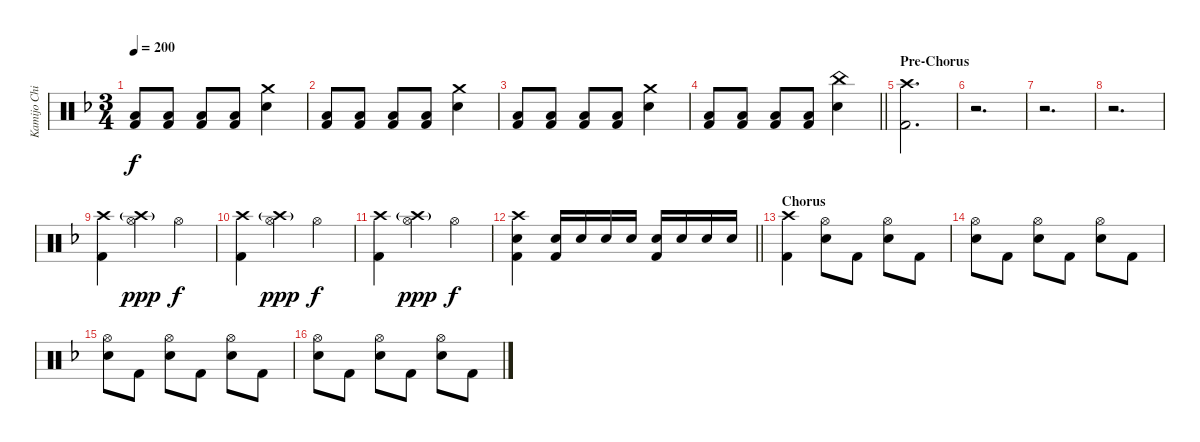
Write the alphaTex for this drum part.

\track ("Kamijo Chihiro" "Kamijo Chi") {instrument percussion}
\staff {score}
\articulation defaults
\ts (3 4)
\tempo 200
\clef neutral
\ks dminor
("Low Floor Tom (hit)" "Kick (hit) 2").8{dy f} ("Low Floor Tom (hit)" "Kick (hit) 2").8 ("Low Floor Tom (hit)" "Kick (hit) 2").8 ("Low Floor Tom (hit)" "Kick (hit) 2").8 ("Crash medium (hit)" "Snare (hit) 2").4 |
("Low Floor Tom (hit)" "Kick (hit) 2").8 ("Low Floor Tom (hit)" "Kick (hit) 2").8 ("Low Floor Tom (hit)" "Kick (hit) 2").8 ("Low Floor Tom (hit)" "Kick (hit) 2").8 ("Crash medium (hit)" "Snare (hit) 2").4 |
("Low Floor Tom (hit)" "Kick (hit) 2").8 ("Low Floor Tom (hit)" "Kick (hit) 2").8 ("Low Floor Tom (hit)" "Kick (hit) 2").8 ("Low Floor Tom (hit)" "Kick (hit) 2").8 ("Crash medium (hit)" "Snare (hit) 2").4 |
\barLineRight lightlight
("Low Floor Tom (hit)" "Kick (hit) 2").8 ("Low Floor Tom (hit)" "Kick (hit) 2").8 ("Low Floor Tom (hit)" "Kick (hit) 2").8 ("Low Floor Tom (hit)" "Kick (hit) 2").8 ("China (hit)" "Snare (hit) 2").4 |
\section ("" "Pre-Chorus")
("Crash high (hit)" "Kick (hit) 2").2{d} |
r.2{d} |
r.2{d} |
r.2{d} |
("Crash high (hit)" "Kick (hit) 2").4 ("Crash high (hit)"{g} "Hi-Hat (open)").4{dy ppp} "Hi-Hat (open)".4{dy f} |
("Crash high (hit)" "Kick (hit) 2").4 ("Crash high (hit)"{g} "Hi-Hat (open)").4{dy ppp} "Hi-Hat (open)".4{dy f} |
("Crash high (hit)" "Kick (hit) 2").4 ("Crash high (hit)"{g} "Hi-Hat (open)").4{dy ppp} "Hi-Hat (open)".4{dy f} |
\barLineRight lightlight
("Crash high (hit)" "Snare (hit) 2" "Kick (hit) 2").4 ("Snare (hit) 2" "Kick (hit) 2").16 "Snare (hit) 2".16 "Snare (hit) 2".16 "Snare (hit) 2".16 ("Snare (hit) 2" "Kick (hit) 2").16 "Snare (hit) 2".16 "Snare (hit) 2".16 "Snare (hit) 2".16 |
\section ("" "Chorus")
("Crash high (hit)" "Kick (hit) 2").4 ("Hi-Hat (open)" "Snare (hit) 2").8 "Kick (hit) 2".8 ("Hi-Hat (open)" "Snare (hit) 2").8 "Kick (hit) 2".8 |
("Hi-Hat (open)" "Snare (hit) 2").8 "Kick (hit) 2".8 ("Hi-Hat (open)" "Snare (hit) 2").8 "Kick (hit) 2".8 ("Hi-Hat (open)" "Snare (hit) 2").8 "Kick (hit) 2".8 |
("Hi-Hat (open)" "Snare (hit) 2").8 "Kick (hit) 2".8 ("Hi-Hat (open)" "Snare (hit) 2").8 "Kick (hit) 2".8 ("Hi-Hat (open)" "Snare (hit) 2").8 "Kick (hit) 2".8 |
("Hi-Hat (open)" "Snare (hit) 2").8 "Kick (hit) 2".8 ("Hi-Hat (open)" "Snare (hit) 2").8 "Kick (hit) 2".8 ("Hi-Hat (open)" "Snare (hit) 2").8 "Kick (hit) 2".8
